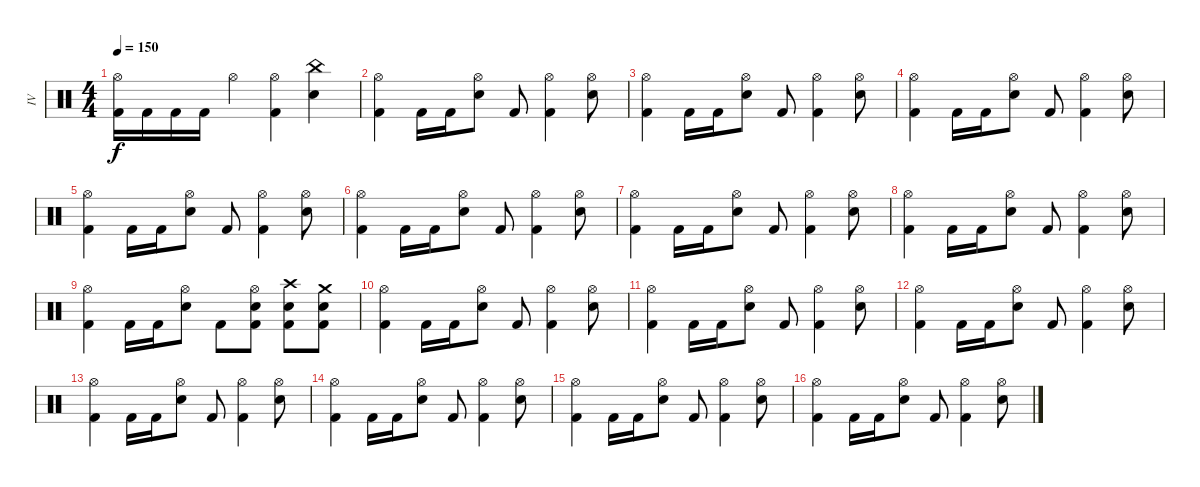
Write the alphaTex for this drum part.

\track ("IV" "IV") {instrument percussion}
\staff {score}
\articulation defaults
\ts (4 4)
\tempo 150
\clef neutral
\ks c
("Hi-Hat (open)" "Kick (hit) 2").16{dy f} "Kick (hit) 2".16 "Kick (hit) 2".16 "Kick (hit) 2".16 "Hi-Hat (open)".4 ("Hi-Hat (open)" "Kick (hit) 2").4 ("China (hit)" "Snare (hit) 2").4 |
("Hi-Hat (open)" "Kick (hit) 2").4 "Kick (hit) 2".16 "Kick (hit) 2".16 ("Hi-Hat (open)" "Snare (hit) 2").8 "Kick (hit) 2".8 ("Hi-Hat (open)" "Kick (hit) 2").4 ("Hi-Hat (open)" "Snare (hit) 2").8 |
("Hi-Hat (open)" "Kick (hit) 2").4 "Kick (hit) 2".16 "Kick (hit) 2".16 ("Hi-Hat (open)" "Snare (hit) 2").8 "Kick (hit) 2".8 ("Hi-Hat (open)" "Kick (hit) 2").4 ("Hi-Hat (open)" "Snare (hit) 2").8 |
("Hi-Hat (open)" "Kick (hit) 2").4 "Kick (hit) 2".16 "Kick (hit) 2".16 ("Hi-Hat (open)" "Snare (hit) 2").8 "Kick (hit) 2".8 ("Hi-Hat (open)" "Kick (hit) 2").4 ("Hi-Hat (open)" "Snare (hit) 2").8 |
("Hi-Hat (open)" "Kick (hit) 2").4 "Kick (hit) 2".16 "Kick (hit) 2".16 ("Hi-Hat (open)" "Snare (hit) 2").8 "Kick (hit) 2".8 ("Hi-Hat (open)" "Kick (hit) 2").4 ("Hi-Hat (open)" "Snare (hit) 2").8 |
("Hi-Hat (open)" "Kick (hit) 2").4 "Kick (hit) 2".16 "Kick (hit) 2".16 ("Hi-Hat (open)" "Snare (hit) 2").8 "Kick (hit) 2".8 ("Hi-Hat (open)" "Kick (hit) 2").4 ("Hi-Hat (open)" "Snare (hit) 2").8 |
("Hi-Hat (open)" "Kick (hit) 2").4 "Kick (hit) 2".16 "Kick (hit) 2".16 ("Hi-Hat (open)" "Snare (hit) 2").8 "Kick (hit) 2".8 ("Hi-Hat (open)" "Kick (hit) 2").4 ("Hi-Hat (open)" "Snare (hit) 2").8 |
("Hi-Hat (open)" "Kick (hit) 2").4 "Kick (hit) 2".16 "Kick (hit) 2".16 ("Hi-Hat (open)" "Snare (hit) 2").8 "Kick (hit) 2".8 ("Hi-Hat (open)" "Kick (hit) 2").4 ("Hi-Hat (open)" "Snare (hit) 2").8 |
("Hi-Hat (open)" "Kick (hit) 2").4 "Kick (hit) 2".16 "Kick (hit) 2".16 ("Hi-Hat (open)" "Snare (hit) 2").8 "Kick (hit) 2".8 ("Hi-Hat (open)" "Snare (hit) 2" "Kick (hit) 2").8 ("Crash high (hit)" "Snare (hit) 2" "Kick (hit) 2").8 ("Crash medium (hit)" "Snare (hit) 2" "Kick (hit) 2").8 |
("Hi-Hat (open)" "Kick (hit) 2").4 "Kick (hit) 2".16 "Kick (hit) 2".16 ("Hi-Hat (open)" "Snare (hit) 2").8 "Kick (hit) 2".8 ("Hi-Hat (open)" "Kick (hit) 2").4 ("Hi-Hat (open)" "Snare (hit) 2").8 |
("Hi-Hat (open)" "Kick (hit) 2").4 "Kick (hit) 2".16 "Kick (hit) 2".16 ("Hi-Hat (open)" "Snare (hit) 2").8 "Kick (hit) 2".8 ("Hi-Hat (open)" "Kick (hit) 2").4 ("Hi-Hat (open)" "Snare (hit) 2").8 |
("Hi-Hat (open)" "Kick (hit) 2").4 "Kick (hit) 2".16 "Kick (hit) 2".16 ("Hi-Hat (open)" "Snare (hit) 2").8 "Kick (hit) 2".8 ("Hi-Hat (open)" "Kick (hit) 2").4 ("Hi-Hat (open)" "Snare (hit) 2").8 |
("Hi-Hat (open)" "Kick (hit) 2").4 "Kick (hit) 2".16 "Kick (hit) 2".16 ("Hi-Hat (open)" "Snare (hit) 2").8 "Kick (hit) 2".8 ("Hi-Hat (open)" "Kick (hit) 2").4 ("Hi-Hat (open)" "Snare (hit) 2").8 |
("Hi-Hat (open)" "Kick (hit) 2").4 "Kick (hit) 2".16 "Kick (hit) 2".16 ("Hi-Hat (open)" "Snare (hit) 2").8 "Kick (hit) 2".8 ("Hi-Hat (open)" "Kick (hit) 2").4 ("Hi-Hat (open)" "Snare (hit) 2").8 |
("Hi-Hat (open)" "Kick (hit) 2").4 "Kick (hit) 2".16 "Kick (hit) 2".16 ("Hi-Hat (open)" "Snare (hit) 2").8 "Kick (hit) 2".8 ("Hi-Hat (open)" "Kick (hit) 2").4 ("Hi-Hat (open)" "Snare (hit) 2").8 |
("Hi-Hat (open)" "Kick (hit) 2").4 "Kick (hit) 2".16 "Kick (hit) 2".16 ("Hi-Hat (open)" "Snare (hit) 2").8 "Kick (hit) 2".8 ("Hi-Hat (open)" "Kick (hit) 2").4 ("Hi-Hat (open)" "Snare (hit) 2").8
